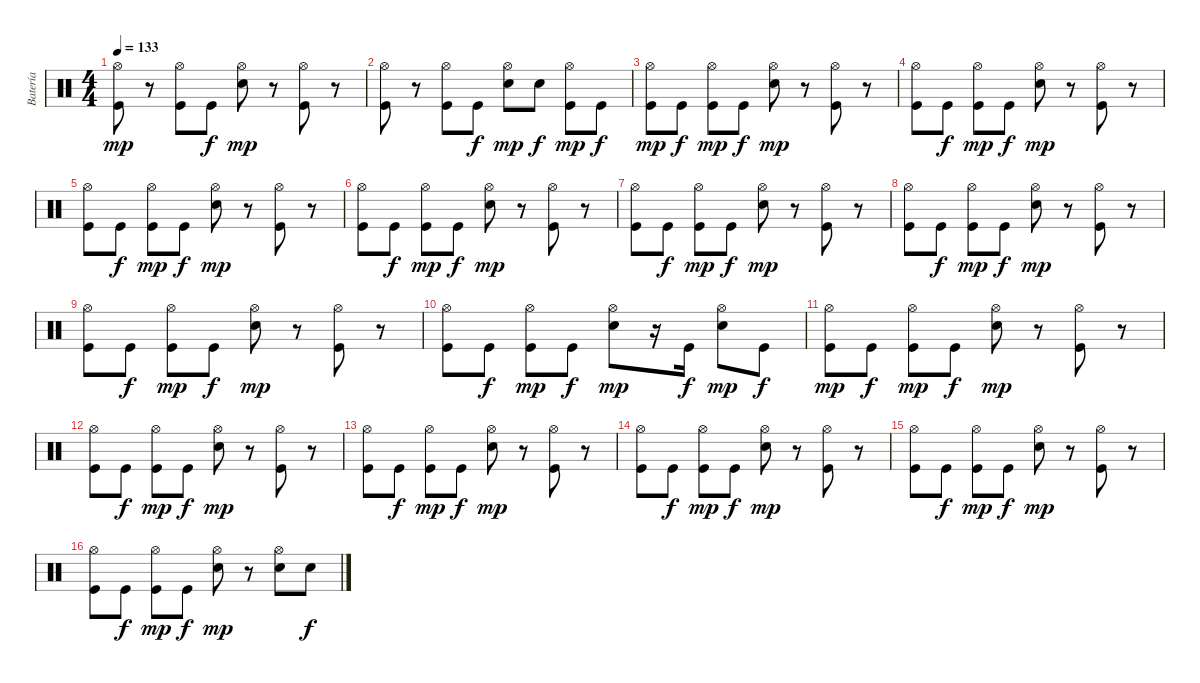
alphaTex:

\track ("Batería" "Batería") {instrument percussion}
\staff {score}
\articulation defaults
\ts (4 4)
\tempo 133
\clef neutral
\ks c
("Hi-Hat (open)" "Kick (hit)").8{dy mp} r.8 ("Hi-Hat (open)" "Kick (hit)").8 "Kick (hit)".8{dy f} ("Hi-Hat (open)" "Snare (hit) 2").8{dy mp} r.8 ("Hi-Hat (open)" "Kick (hit)").8 r.8 |
("Hi-Hat (open)" "Kick (hit)").8 r.8 ("Hi-Hat (open)" "Kick (hit)").8 "Kick (hit)".8{dy f} ("Hi-Hat (open)" "Snare (hit) 2").8{dy mp} "Snare (hit) 2".8{dy f} ("Hi-Hat (open)" "Kick (hit)").8{dy mp} "Kick (hit)".8{dy f} |
("Hi-Hat (open)" "Kick (hit)").8{dy mp} "Kick (hit)".8{dy f} ("Hi-Hat (open)" "Kick (hit)").8{dy mp} "Kick (hit)".8{dy f} ("Hi-Hat (open)" "Snare (hit) 2").8{dy mp} r.8 ("Hi-Hat (open)" "Kick (hit)").8 r.8 |
("Hi-Hat (open)" "Kick (hit)").8 "Kick (hit)".8{dy f} ("Hi-Hat (open)" "Kick (hit)").8{dy mp} "Kick (hit)".8{dy f} ("Hi-Hat (open)" "Snare (hit) 2").8{dy mp} r.8 ("Hi-Hat (open)" "Kick (hit)").8 r.8 |
("Hi-Hat (open)" "Kick (hit)").8 "Kick (hit)".8{dy f} ("Hi-Hat (open)" "Kick (hit)").8{dy mp} "Kick (hit)".8{dy f} ("Hi-Hat (open)" "Snare (hit) 2").8{dy mp} r.8 ("Hi-Hat (open)" "Kick (hit)").8 r.8 |
("Hi-Hat (open)" "Kick (hit)").8 "Kick (hit)".8{dy f} ("Hi-Hat (open)" "Kick (hit)").8{dy mp} "Kick (hit)".8{dy f} ("Hi-Hat (open)" "Snare (hit) 2").8{dy mp} r.8 ("Hi-Hat (open)" "Kick (hit)").8 r.8 |
("Hi-Hat (open)" "Kick (hit)").8 "Kick (hit)".8{dy f} ("Hi-Hat (open)" "Kick (hit)").8{dy mp} "Kick (hit)".8{dy f} ("Hi-Hat (open)" "Snare (hit) 2").8{dy mp} r.8 ("Hi-Hat (open)" "Kick (hit)").8 r.8 |
("Hi-Hat (open)" "Kick (hit)").8 "Kick (hit)".8{dy f} ("Hi-Hat (open)" "Kick (hit)").8{dy mp} "Kick (hit)".8{dy f} ("Hi-Hat (open)" "Snare (hit) 2").8{dy mp} r.8 ("Hi-Hat (open)" "Kick (hit)").8 r.8 |
("Hi-Hat (open)" "Kick (hit)").8 "Kick (hit)".8{dy f} ("Hi-Hat (open)" "Kick (hit)").8{dy mp} "Kick (hit)".8{dy f} ("Hi-Hat (open)" "Snare (hit) 2").8{dy mp} r.8 ("Hi-Hat (open)" "Kick (hit)").8 r.8 |
("Hi-Hat (open)" "Kick (hit)").8 "Kick (hit)".8{dy f} ("Hi-Hat (open)" "Kick (hit)").8{dy mp} "Kick (hit)".8{dy f} ("Hi-Hat (open)" "Snare (hit) 2").8{dy mp} r.16 "Kick (hit)".16{dy f} ("Hi-Hat (open)" "Snare (hit) 2").8{dy mp} "Kick (hit)".8{dy f} |
("Hi-Hat (open)" "Kick (hit)").8{dy mp} "Kick (hit)".8{dy f} ("Hi-Hat (open)" "Kick (hit)").8{dy mp} "Kick (hit)".8{dy f} ("Hi-Hat (open)" "Snare (hit) 2").8{dy mp} r.8 ("Hi-Hat (open)" "Kick (hit)").8 r.8 |
("Hi-Hat (open)" "Kick (hit)").8 "Kick (hit)".8{dy f} ("Hi-Hat (open)" "Kick (hit)").8{dy mp} "Kick (hit)".8{dy f} ("Hi-Hat (open)" "Snare (hit) 2").8{dy mp} r.8 ("Hi-Hat (open)" "Kick (hit)").8 r.8 |
("Hi-Hat (open)" "Kick (hit)").8 "Kick (hit)".8{dy f} ("Hi-Hat (open)" "Kick (hit)").8{dy mp} "Kick (hit)".8{dy f} ("Hi-Hat (open)" "Snare (hit) 2").8{dy mp} r.8 ("Hi-Hat (open)" "Kick (hit)").8 r.8 |
("Hi-Hat (open)" "Kick (hit)").8 "Kick (hit)".8{dy f} ("Hi-Hat (open)" "Kick (hit)").8{dy mp} "Kick (hit)".8{dy f} ("Hi-Hat (open)" "Snare (hit) 2").8{dy mp} r.8 ("Hi-Hat (open)" "Kick (hit)").8 r.8 |
("Hi-Hat (open)" "Kick (hit)").8 "Kick (hit)".8{dy f} ("Hi-Hat (open)" "Kick (hit)").8{dy mp} "Kick (hit)".8{dy f} ("Hi-Hat (open)" "Snare (hit) 2").8{dy mp} r.8 ("Hi-Hat (open)" "Kick (hit)").8 r.8 |
("Hi-Hat (open)" "Kick (hit)").8 "Kick (hit)".8{dy f} ("Hi-Hat (open)" "Kick (hit)").8{dy mp} "Kick (hit)".8{dy f} ("Hi-Hat (open)" "Snare (hit) 2").8{dy mp} r.8 ("Hi-Hat (open)" "Snare (hit) 2").8 "Snare (hit) 2".8{dy f}
